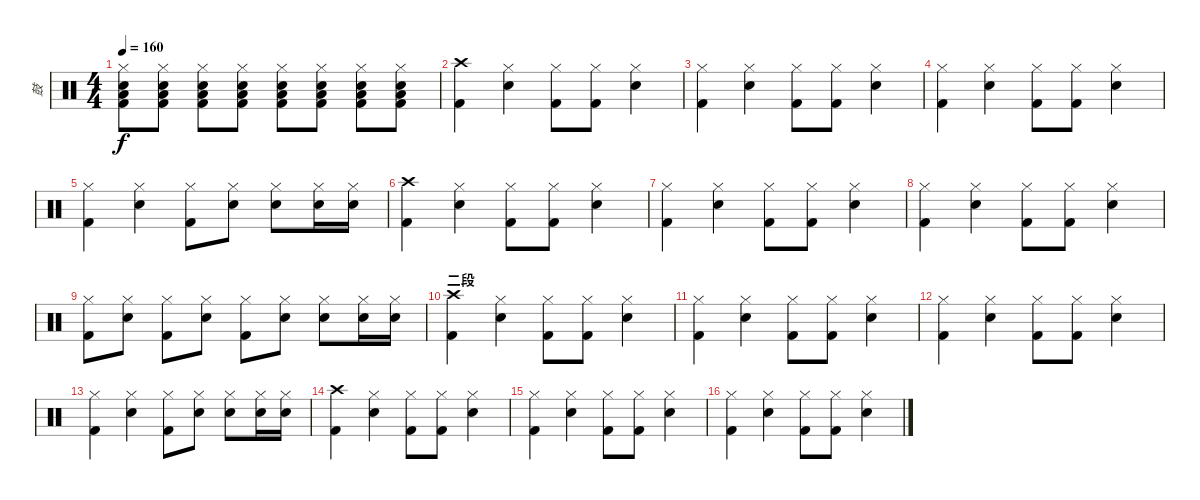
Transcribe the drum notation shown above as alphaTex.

\track ("鼓" "鼓") {instrument percussion}
\staff {score}
\articulation defaults
\ts (4 4)
\tempo 160
\clef neutral
\ks c
("Hi-Hat (closed)" "Snare (hit) 2" "Low Floor Tom (hit)" "Kick (hit) 2").8{dy f} ("Hi-Hat (closed)" "Snare (hit) 2" "Low Floor Tom (hit)" "Kick (hit) 2").8 ("Hi-Hat (closed)" "Snare (hit) 2" "Low Floor Tom (hit)" "Kick (hit) 2").8 ("Hi-Hat (closed)" "Snare (hit) 2" "Low Floor Tom (hit)" "Kick (hit) 2").8 ("Hi-Hat (closed)" "Snare (hit) 2" "Low Floor Tom (hit)" "Kick (hit) 2").8 ("Hi-Hat (closed)" "Snare (hit) 2" "Low Floor Tom (hit)" "Kick (hit) 2").8 ("Hi-Hat (closed)" "Snare (hit) 2" "Low Floor Tom (hit)" "Kick (hit) 2").8 ("Hi-Hat (closed)" "Snare (hit) 2" "Low Floor Tom (hit)" "Kick (hit) 2").8 |
("Crash high (hit)" "Kick (hit) 2").4 ("Hi-Hat (closed)" "Snare (hit) 2").4 ("Hi-Hat (closed)" "Kick (hit) 2").8 ("Hi-Hat (closed)" "Kick (hit) 2").8 ("Hi-Hat (closed)" "Snare (hit) 2").4 |
("Hi-Hat (closed)" "Kick (hit) 2").4 ("Hi-Hat (closed)" "Snare (hit) 2").4 ("Hi-Hat (closed)" "Kick (hit) 2").8 ("Hi-Hat (closed)" "Kick (hit) 2").8 ("Hi-Hat (closed)" "Snare (hit) 2").4 |
("Hi-Hat (closed)" "Kick (hit) 2").4 ("Hi-Hat (closed)" "Snare (hit) 2").4 ("Hi-Hat (closed)" "Kick (hit) 2").8 ("Hi-Hat (closed)" "Kick (hit) 2").8 ("Hi-Hat (closed)" "Snare (hit) 2").4 |
("Hi-Hat (closed)" "Kick (hit) 2").4 ("Hi-Hat (closed)" "Snare (hit) 2").4 ("Hi-Hat (closed)" "Kick (hit) 2").8 ("Hi-Hat (closed)" "Snare (hit) 2").8 ("Hi-Hat (closed)" "Snare (hit) 2").8 ("Hi-Hat (closed)" "Snare (hit) 2").16 ("Hi-Hat (closed)" "Snare (hit) 2").16 |
("Crash high (hit)" "Kick (hit) 2").4 ("Hi-Hat (closed)" "Snare (hit) 2").4 ("Hi-Hat (closed)" "Kick (hit) 2").8 ("Hi-Hat (closed)" "Kick (hit) 2").8 ("Hi-Hat (closed)" "Snare (hit) 2").4 |
("Hi-Hat (closed)" "Kick (hit) 2").4 ("Hi-Hat (closed)" "Snare (hit) 2").4 ("Hi-Hat (closed)" "Kick (hit) 2").8 ("Hi-Hat (closed)" "Kick (hit) 2").8 ("Hi-Hat (closed)" "Snare (hit) 2").4 |
("Hi-Hat (closed)" "Kick (hit) 2").4 ("Hi-Hat (closed)" "Snare (hit) 2").4 ("Hi-Hat (closed)" "Kick (hit) 2").8 ("Hi-Hat (closed)" "Kick (hit) 2").8 ("Hi-Hat (closed)" "Snare (hit) 2").4 |
("Hi-Hat (closed)" "Kick (hit) 2").8 ("Hi-Hat (closed)" "Snare (hit) 2").8 ("Hi-Hat (closed)" "Kick (hit) 2").8 ("Hi-Hat (closed)" "Snare (hit) 2").8 ("Hi-Hat (closed)" "Kick (hit) 2").8 ("Hi-Hat (closed)" "Snare (hit) 2").8 ("Hi-Hat (closed)" "Snare (hit) 2").8 ("Hi-Hat (closed)" "Snare (hit) 2").16 ("Hi-Hat (closed)" "Snare (hit) 2").16 |
\section ("" "二段")
("Crash high (hit)" "Kick (hit) 2").4 ("Hi-Hat (closed)" "Snare (hit) 2").4 ("Hi-Hat (closed)" "Kick (hit) 2").8 ("Hi-Hat (closed)" "Kick (hit) 2").8 ("Hi-Hat (closed)" "Snare (hit) 2").4 |
("Hi-Hat (closed)" "Kick (hit) 2").4 ("Hi-Hat (closed)" "Snare (hit) 2").4 ("Hi-Hat (closed)" "Kick (hit) 2").8 ("Hi-Hat (closed)" "Kick (hit) 2").8 ("Hi-Hat (closed)" "Snare (hit) 2").4 |
("Hi-Hat (closed)" "Kick (hit) 2").4 ("Hi-Hat (closed)" "Snare (hit) 2").4 ("Hi-Hat (closed)" "Kick (hit) 2").8 ("Hi-Hat (closed)" "Kick (hit) 2").8 ("Hi-Hat (closed)" "Snare (hit) 2").4 |
("Hi-Hat (closed)" "Kick (hit) 2").4 ("Hi-Hat (closed)" "Snare (hit) 2").4 ("Hi-Hat (closed)" "Kick (hit) 2").8 ("Hi-Hat (closed)" "Snare (hit) 2").8 ("Hi-Hat (closed)" "Snare (hit) 2").8 ("Hi-Hat (closed)" "Snare (hit) 2").16 ("Hi-Hat (closed)" "Snare (hit) 2").16 |
("Crash high (hit)" "Kick (hit) 2").4 ("Hi-Hat (closed)" "Snare (hit) 2").4 ("Hi-Hat (closed)" "Kick (hit) 2").8 ("Hi-Hat (closed)" "Kick (hit) 2").8 ("Hi-Hat (closed)" "Snare (hit) 2").4 |
("Hi-Hat (closed)" "Kick (hit) 2").4 ("Hi-Hat (closed)" "Snare (hit) 2").4 ("Hi-Hat (closed)" "Kick (hit) 2").8 ("Hi-Hat (closed)" "Kick (hit) 2").8 ("Hi-Hat (closed)" "Snare (hit) 2").4 |
("Hi-Hat (closed)" "Kick (hit) 2").4 ("Hi-Hat (closed)" "Snare (hit) 2").4 ("Hi-Hat (closed)" "Kick (hit) 2").8 ("Hi-Hat (closed)" "Kick (hit) 2").8 ("Hi-Hat (closed)" "Snare (hit) 2").4
